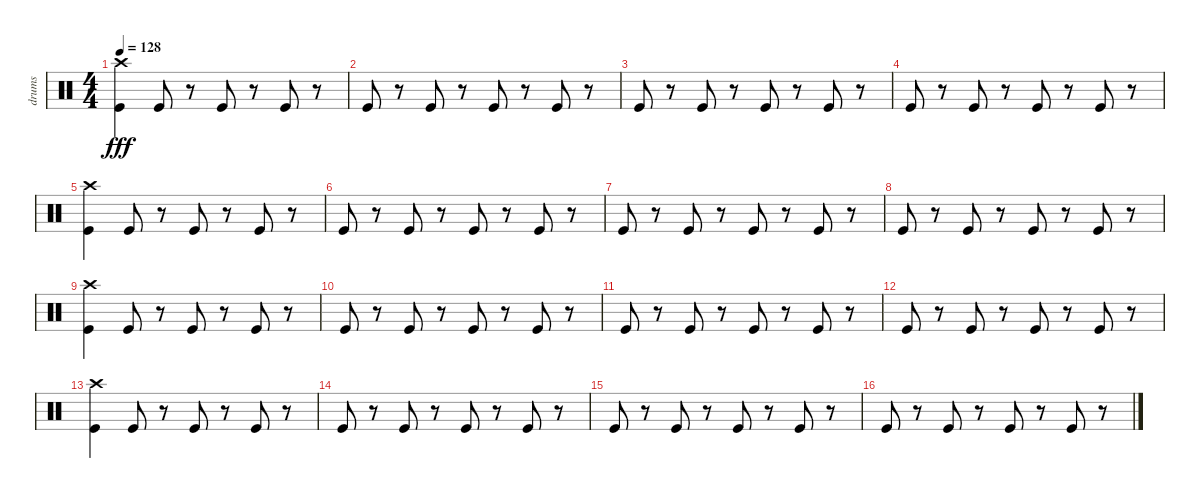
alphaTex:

\track ("drums" "drums") {instrument percussion}
\staff {score}
\articulation defaults
\ts (4 4)
\tempo 128
\clef neutral
\ks c
("Kick (hit)" "Crash high (hit)").4{dy fff} "Kick (hit)".8 r.8 "Kick (hit)".8 r.8 "Kick (hit)".8 r.8 |
"Kick (hit)".8 r.8 "Kick (hit)".8 r.8 "Kick (hit)".8 r.8 "Kick (hit)".8 r.8 |
"Kick (hit)".8 r.8 "Kick (hit)".8 r.8 "Kick (hit)".8 r.8 "Kick (hit)".8 r.8 |
"Kick (hit)".8 r.8 "Kick (hit)".8 r.8 "Kick (hit)".8 r.8 "Kick (hit)".8 r.8 |
("Kick (hit)" "Crash high (hit)").4 "Kick (hit)".8 r.8 "Kick (hit)".8 r.8 "Kick (hit)".8 r.8 |
"Kick (hit)".8 r.8 "Kick (hit)".8 r.8 "Kick (hit)".8 r.8 "Kick (hit)".8 r.8 |
"Kick (hit)".8 r.8 "Kick (hit)".8 r.8 "Kick (hit)".8 r.8 "Kick (hit)".8 r.8 |
"Kick (hit)".8 r.8 "Kick (hit)".8 r.8 "Kick (hit)".8 r.8 "Kick (hit)".8 r.8 |
("Kick (hit)" "Crash high (hit)").4 "Kick (hit)".8 r.8 "Kick (hit)".8 r.8 "Kick (hit)".8 r.8 |
"Kick (hit)".8 r.8 "Kick (hit)".8 r.8 "Kick (hit)".8 r.8 "Kick (hit)".8 r.8 |
"Kick (hit)".8 r.8 "Kick (hit)".8 r.8 "Kick (hit)".8 r.8 "Kick (hit)".8 r.8 |
"Kick (hit)".8 r.8 "Kick (hit)".8 r.8 "Kick (hit)".8 r.8 "Kick (hit)".8 r.8 |
("Kick (hit)" "Crash high (hit)").4 "Kick (hit)".8 r.8 "Kick (hit)".8 r.8 "Kick (hit)".8 r.8 |
"Kick (hit)".8 r.8 "Kick (hit)".8 r.8 "Kick (hit)".8 r.8 "Kick (hit)".8 r.8 |
"Kick (hit)".8 r.8 "Kick (hit)".8 r.8 "Kick (hit)".8 r.8 "Kick (hit)".8 r.8 |
"Kick (hit)".8 r.8 "Kick (hit)".8 r.8 "Kick (hit)".8 r.8 "Kick (hit)".8 r.8
